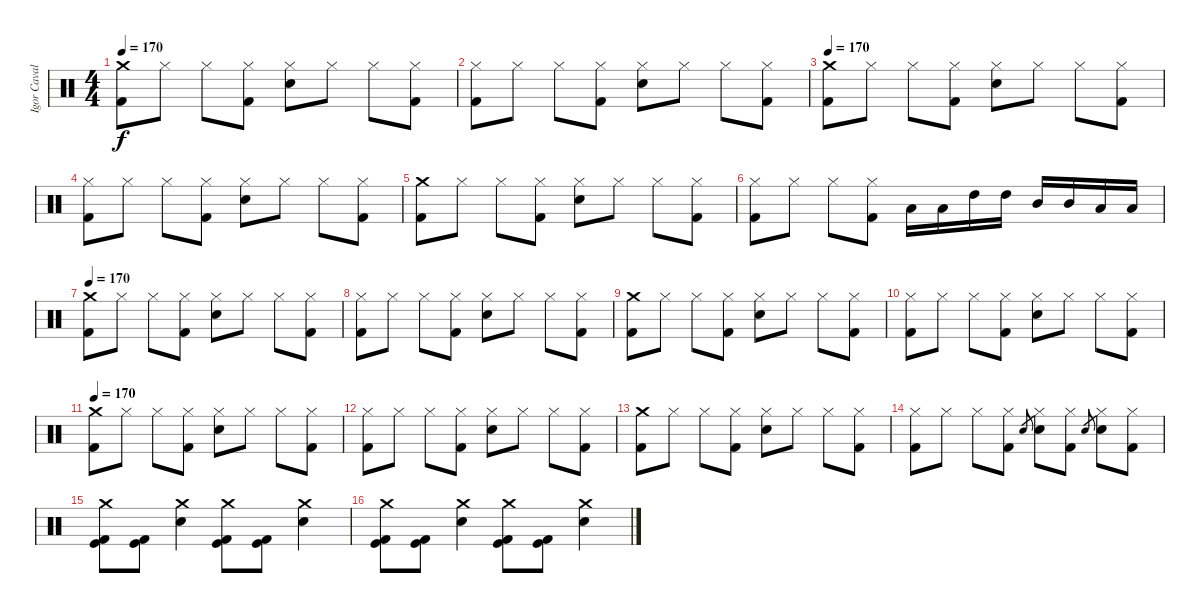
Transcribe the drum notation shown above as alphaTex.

\track ("Igor Cavalera" "Igor Caval") {instrument percussion}
\staff {score}
\articulation defaults
\ts (4 4)
\tempo 170
\clef neutral
\ks c
("Crash medium (hit)" "Kick (hit) 2").8{dy f} "Hi-Hat (closed)".8 "Hi-Hat (closed)".8 ("Hi-Hat (closed)" "Kick (hit) 2").8 ("Hi-Hat (closed)" "Snare (hit) 2").8 "Hi-Hat (closed)".8 "Hi-Hat (closed)".8 ("Hi-Hat (closed)" "Kick (hit) 2").8 |
("Hi-Hat (closed)" "Kick (hit) 2").8 "Hi-Hat (closed)".8 "Hi-Hat (closed)".8 ("Hi-Hat (closed)" "Kick (hit) 2").8 ("Hi-Hat (closed)" "Snare (hit) 2").8 "Hi-Hat (closed)".8 "Hi-Hat (closed)".8 ("Hi-Hat (closed)" "Kick (hit) 2").8 |
\tempo 170
("Crash medium (hit)" "Kick (hit) 2").8 "Hi-Hat (closed)".8 "Hi-Hat (closed)".8 ("Hi-Hat (closed)" "Kick (hit) 2").8 ("Hi-Hat (closed)" "Snare (hit) 2").8 "Hi-Hat (closed)".8 "Hi-Hat (closed)".8 ("Hi-Hat (closed)" "Kick (hit) 2").8 |
("Hi-Hat (closed)" "Kick (hit) 2").8 "Hi-Hat (closed)".8 "Hi-Hat (closed)".8 ("Hi-Hat (closed)" "Kick (hit) 2").8 ("Hi-Hat (closed)" "Snare (hit) 2").8 "Hi-Hat (closed)".8 "Hi-Hat (closed)".8 ("Hi-Hat (closed)" "Kick (hit) 2").8 |
("Crash medium (hit)" "Kick (hit) 2").8 "Hi-Hat (closed)".8 "Hi-Hat (closed)".8 ("Hi-Hat (closed)" "Kick (hit) 2").8 ("Hi-Hat (closed)" "Snare (hit) 2").8 "Hi-Hat (closed)".8 "Hi-Hat (closed)".8 ("Hi-Hat (closed)" "Kick (hit) 2").8 |
("Hi-Hat (closed)" "Kick (hit) 2").8 "Hi-Hat (closed)".8 "Hi-Hat (closed)".8 ("Hi-Hat (closed)" "Kick (hit) 2").8 "Low Tom (hit)".16 "Low Tom (hit)".16 "High Tom (hit)".16 "High Tom (hit)".16 "Mid Tom (hit)".16 "Mid Tom (hit)".16 "Low Tom (hit)".16 "Low Tom (hit)".16 |
\tempo 170
("Crash medium (hit)" "Kick (hit) 2").8 "Hi-Hat (closed)".8 "Hi-Hat (closed)".8 ("Hi-Hat (closed)" "Kick (hit) 2").8 ("Hi-Hat (closed)" "Snare (hit) 2").8 "Hi-Hat (closed)".8 "Hi-Hat (closed)".8 ("Hi-Hat (closed)" "Kick (hit) 2").8 |
("Hi-Hat (closed)" "Kick (hit) 2").8 "Hi-Hat (closed)".8 "Hi-Hat (closed)".8 ("Hi-Hat (closed)" "Kick (hit) 2").8 ("Hi-Hat (closed)" "Snare (hit) 2").8 "Hi-Hat (closed)".8 "Hi-Hat (closed)".8 ("Hi-Hat (closed)" "Kick (hit) 2").8 |
("Crash medium (hit)" "Kick (hit) 2").8 "Hi-Hat (closed)".8 "Hi-Hat (closed)".8 ("Hi-Hat (closed)" "Kick (hit) 2").8 ("Hi-Hat (closed)" "Snare (hit) 2").8 "Hi-Hat (closed)".8 "Hi-Hat (closed)".8 ("Hi-Hat (closed)" "Kick (hit) 2").8 |
("Hi-Hat (closed)" "Kick (hit) 2").8 "Hi-Hat (closed)".8 "Hi-Hat (closed)".8 ("Hi-Hat (closed)" "Kick (hit) 2").8 ("Hi-Hat (closed)" "Snare (hit) 2").8 "Hi-Hat (closed)".8 "Hi-Hat (closed)".8 ("Hi-Hat (closed)" "Kick (hit) 2").8 |
\tempo 170
("Crash medium (hit)" "Kick (hit) 2").8 "Hi-Hat (closed)".8 "Hi-Hat (closed)".8 ("Hi-Hat (closed)" "Kick (hit) 2").8 ("Hi-Hat (closed)" "Snare (hit) 2").8 "Hi-Hat (closed)".8 "Hi-Hat (closed)".8 ("Hi-Hat (closed)" "Kick (hit) 2").8 |
("Hi-Hat (closed)" "Kick (hit) 2").8 "Hi-Hat (closed)".8 "Hi-Hat (closed)".8 ("Hi-Hat (closed)" "Kick (hit) 2").8 ("Hi-Hat (closed)" "Snare (hit) 2").8 "Hi-Hat (closed)".8 "Hi-Hat (closed)".8 ("Hi-Hat (closed)" "Kick (hit) 2").8 |
("Crash medium (hit)" "Kick (hit) 2").8 "Hi-Hat (closed)".8 "Hi-Hat (closed)".8 ("Hi-Hat (closed)" "Kick (hit) 2").8 ("Hi-Hat (closed)" "Snare (hit) 2").8 "Hi-Hat (closed)".8 "Hi-Hat (closed)".8 ("Hi-Hat (closed)" "Kick (hit) 2").8 |
("Hi-Hat (closed)" "Kick (hit) 2").8 "Hi-Hat (closed)".8 "Hi-Hat (closed)".8 ("Hi-Hat (closed)" "Kick (hit) 2").8 "Snare (hit) 2".8{gr} ("Hi-Hat (closed)" "Snare (hit) 2").8 ("Hi-Hat (closed)" "Kick (hit) 2").8 "Snare (hit) 2".8{gr} ("Hi-Hat (closed)" "Snare (hit) 2").8 ("Hi-Hat (closed)" "Kick (hit) 2").8 |
("Crash medium (hit)" "Kick (hit)" "Kick (hit) 2").8 ("Kick (hit)" "Kick (hit) 2").8 ("Crash medium (hit)" "Snare (hit) 2").4 ("Crash medium (hit)" "Kick (hit)" "Kick (hit) 2").8 ("Kick (hit)" "Kick (hit) 2").8 ("Crash medium (hit)" "Snare (hit) 2").4 |
("Crash medium (hit)" "Kick (hit)" "Kick (hit) 2").8 ("Kick (hit)" "Kick (hit) 2").8 ("Crash medium (hit)" "Snare (hit) 2").4 ("Crash medium (hit)" "Kick (hit)" "Kick (hit) 2").8 ("Kick (hit)" "Kick (hit) 2").8 ("Crash medium (hit)" "Snare (hit) 2").4
